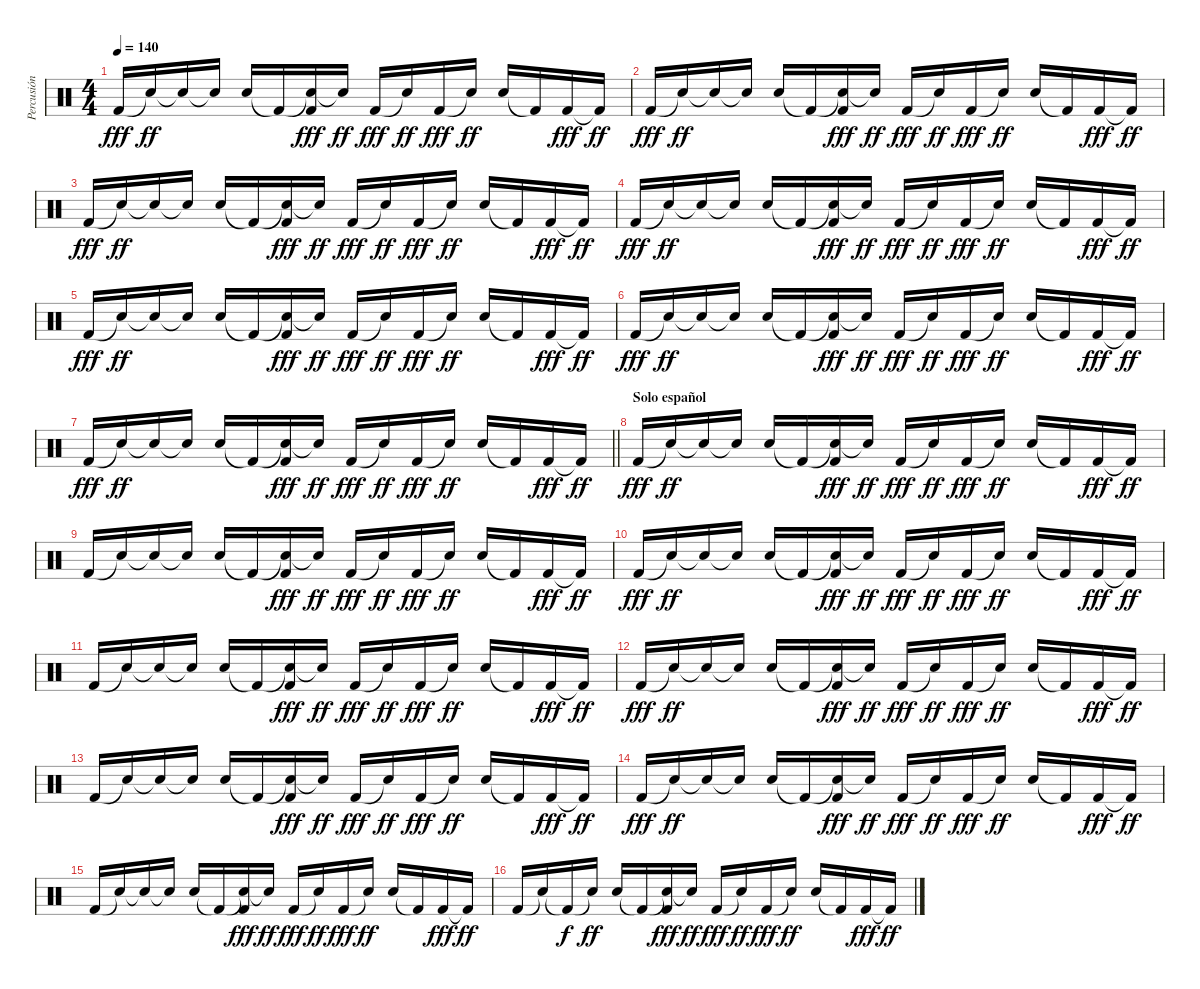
\track ("Percusión" "Percusión") {instrument percussion}
\staff {score}
\articulation defaults
\ts (4 4)
\tempo 140
\clef neutral
\ks c "Kick (hit) 2".16{dy fff} "Snare (hit)"{t}.16{dy ff} "Electric Snare (hit)"{t}.16 "Snare (hit)"{t}.16 "Electric Snare (hit)".16 "Kick (hit) 2"{t}.16
("Electric Snare (hit)"{t} "Kick (hit) 2").16{dy fff} "Snare (hit)"{t}.16{dy ff} "Kick (hit) 2".16{dy fff} "Snare (hit)"{t}.16{dy ff} "Kick (hit) 2".16{dy fff} "Snare (hit)"{t}.16{dy ff} "Electric Snare (hit)".16 "Kick (hit) 2"{t}.16 "Kick (hit) 2".16{dy fff} "Kick (hit) 2"{t}.16{dy ff} |
"Kick (hit) 2".16{dy fff} "Snare (hit)"{t}.16{dy ff} "Electric Snare (hit)"{t}.16 "Snare (hit)"{t}.16 "Electric Snare (hit)".16 "Kick (hit) 2"{t}.16 ("Electric Snare (hit)"{t} "Kick (hit) 2").16{dy fff} "Snare (hit)"{t}.16{dy ff} "Kick (hit) 2".16{dy fff} "Snare (hit)"{t}.16{dy ff} "Kick (hit) 2".16{dy fff} "Snare (hit)"{t}.16{dy ff} "Electric Snare (hit)".16 "Kick (hit) 2"{t}.16 "Kick (hit) 2".16{dy fff} "Kick (hit) 2"{t}.16{dy ff} |
"Kick (hit) 2".16{dy fff} "Snare (hit)"{t}.16{dy ff} "Electric Snare (hit)"{t}.16 "Snare (hit)"{t}.16 "Electric Snare (hit)".16 "Kick (hit) 2"{t}.16 ("Electric Snare (hit)"{t} "Kick (hit) 2").16{dy fff} "Snare (hit)"{t}.16{dy ff} "Kick (hit) 2".16{dy fff} "Snare (hit)"{t}.16{dy ff} "Kick (hit) 2".16{dy fff} "Snare (hit)"{t}.16{dy ff} "Electric Snare (hit)".16 "Kick (hit) 2"{t}.16 "Kick (hit) 2".16{dy fff} "Kick (hit) 2"{t}.16{dy ff} |
"Kick (hit) 2".16{dy fff} "Snare (hit)"{t}.16{dy ff} "Electric Snare (hit)"{t}.16 "Snare (hit)"{t}.16 "Electric Snare (hit)".16 "Kick (hit) 2"{t}.16 ("Electric Snare (hit)"{t} "Kick (hit) 2").16{dy fff} "Snare (hit)"{t}.16{dy ff} "Kick (hit) 2".16{dy fff} "Snare (hit)"{t}.16{dy ff} "Kick (hit) 2".16{dy fff} "Snare (hit)"{t}.16{dy ff} "Electric Snare (hit)".16 "Kick (hit) 2"{t}.16 "Kick (hit) 2".16{dy fff} "Kick (hit) 2"{t}.16{dy ff} |
"Kick (hit) 2".16{dy fff} "Snare (hit)"{t}.16{dy ff} "Electric Snare (hit)"{t}.16 "Snare (hit)"{t}.16 "Electric Snare (hit)".16 "Kick (hit) 2"{t}.16 ("Electric Snare (hit)"{t} "Kick (hit) 2").16{dy fff} "Snare (hit)"{t}.16{dy ff} "Kick (hit) 2".16{dy fff} "Snare (hit)"{t}.16{dy ff} "Kick (hit) 2".16{dy fff} "Snare (hit)"{t}.16{dy ff} "Electric Snare (hit)".16 "Kick (hit) 2"{t}.16 "Kick (hit) 2".16{dy fff} "Kick (hit) 2"{t}.16{dy ff} |
"Kick (hit) 2".16{dy fff} "Snare (hit)"{t}.16{dy ff} "Electric Snare (hit)"{t}.16 "Snare (hit)"{t}.16 "Electric Snare (hit)".16 "Kick (hit) 2"{t}.16 ("Electric Snare (hit)"{t} "Kick (hit) 2").16{dy fff} "Snare (hit)"{t}.16{dy ff} "Kick (hit) 2".16{dy fff} "Snare (hit)"{t}.16{dy ff} "Kick (hit) 2".16{dy fff} "Snare (hit)"{t}.16{dy ff} "Electric Snare (hit)".16 "Kick (hit) 2"{t}.16 "Kick (hit) 2".16{dy fff} "Kick (hit) 2"{t}.16{dy ff} |
\barLineRight lightlight "Kick (hit) 2".16{dy fff} "Snare (hit)"{t}.16{dy ff} "Electric Snare (hit)"{t}.16 "Snare (hit)"{t}.16 "Electric Snare (hit)".16 "Kick (hit) 2"{t}.16
("Electric Snare (hit)"{t} "Kick (hit) 2").16{dy fff} "Snare (hit)"{t}.16{dy ff} "Kick (hit) 2".16{dy fff} "Snare (hit)"{t}.16{dy ff} "Kick (hit) 2".16{dy fff} "Snare (hit)"{t}.16{dy ff} "Electric Snare (hit)".16 "Kick (hit) 2"{t}.16 "Kick (hit) 2".16{dy fff} "Kick (hit) 2"{t}.16{dy ff} |
\section ("" "Solo español")
"Kick (hit) 2".16{dy fff} "Snare (hit)"{t}.16{dy ff} "Electric Snare (hit)"{t}.16 "Snare (hit)"{t}.16 "Electric Snare (hit)".16 "Kick (hit) 2"{t}.16 ("Electric Snare (hit)"{t} "Kick (hit) 2").16{dy fff} "Snare (hit)"{t}.16{dy ff} "Kick (hit) 2".16{dy fff} "Snare (hit)"{t}.16{dy ff} "Kick (hit) 2".16{dy fff} "Snare (hit)"{t}.16{dy ff} "Electric Snare (hit)".16 "Kick (hit) 2"{t}.16 "Kick (hit) 2".16{dy fff} "Kick (hit) 2"{t}.16{dy ff} |
"Kick (hit) 2".16 "Snare (hit)"{t}.16 "Electric Snare (hit)"{t}.16 "Snare (hit)"{t}.16 "Electric Snare (hit)".16 "Kick (hit) 2"{t}.16 ("Electric Snare (hit)"{t} "Kick (hit) 2").16{dy fff} "Snare (hit)"{t}.16{dy ff} "Kick (hit) 2".16{dy fff} "Snare (hit)"{t}.16{dy ff} "Kick (hit) 2".16{dy fff} "Snare (hit)"{t}.16{dy ff} "Electric Snare (hit)".16 "Kick (hit) 2"{t}.16 "Kick (hit) 2".16{dy fff} "Kick (hit) 2"{t}.16{dy ff} |
"Kick (hit) 2".16{dy fff} "Snare (hit)"{t}.16{dy ff} "Electric Snare (hit)"{t}.16 "Snare (hit)"{t}.16 "Electric Snare (hit)".16 "Kick (hit) 2"{t}.16 ("Electric Snare (hit)"{t} "Kick (hit) 2").16{dy fff} "Snare (hit)"{t}.16{dy ff} "Kick (hit) 2".16{dy fff} "Snare (hit)"{t}.16{dy ff} "Kick (hit) 2".16{dy fff} "Snare (hit)"{t}.16{dy ff} "Electric Snare (hit)".16 "Kick (hit) 2"{t}.16 "Kick (hit) 2".16{dy fff} "Kick (hit) 2"{t}.16{dy ff} |
"Kick (hit) 2".16 "Snare (hit)"{t}.16 "Electric Snare (hit)"{t}.16 "Snare (hit)"{t}.16 "Electric Snare (hit)".16 "Kick (hit) 2"{t}.16 ("Electric Snare (hit)"{t} "Kick (hit) 2").16{dy fff} "Snare (hit)"{t}.16{dy ff} "Kick (hit) 2".16{dy fff} "Snare (hit)"{t}.16{dy ff} "Kick (hit) 2".16{dy fff} "Snare (hit)"{t}.16{dy ff} "Electric Snare (hit)".16 "Kick (hit) 2"{t}.16 "Kick (hit) 2".16{dy fff} "Kick (hit) 2"{t}.16{dy ff} |
"Kick (hit) 2".16{dy fff} "Snare (hit)"{t}.16{dy ff} "Electric Snare (hit)"{t}.16 "Snare (hit)"{t}.16 "Electric Snare (hit)".16 "Kick (hit) 2"{t}.16 ("Electric Snare (hit)"{t} "Kick (hit) 2").16{dy fff} "Snare (hit)"{t}.16{dy ff} "Kick (hit) 2".16{dy fff} "Snare (hit)"{t}.16{dy ff} "Kick (hit) 2".16{dy fff} "Snare (hit)"{t}.16{dy ff} "Electric Snare (hit)".16 "Kick (hit) 2"{t}.16 "Kick (hit) 2".16{dy fff} "Kick (hit) 2"{t}.16{dy ff} |
"Kick (hit) 2".16 "Snare (hit)"{t}.16 "Electric Snare (hit)"{t}.16 "Snare (hit)"{t}.16 "Electric Snare (hit)".16 "Kick (hit) 2"{t}.16 ("Electric Snare (hit)"{t} "Kick (hit) 2").16{dy fff} "Snare (hit)"{t}.16{dy ff} "Kick (hit) 2".16{dy fff} "Snare (hit)"{t}.16{dy ff} "Kick (hit) 2".16{dy fff} "Snare (hit)"{t}.16{dy ff} "Electric Snare (hit)".16 "Kick (hit) 2"{t}.16 "Kick (hit) 2".16{dy fff} "Kick (hit) 2"{t}.16{dy ff} |
"Kick (hit) 2".16{dy fff} "Snare (hit)"{t}.16{dy ff} "Electric Snare (hit)"{t}.16 "Snare (hit)"{t}.16 "Electric Snare (hit)".16 "Kick (hit) 2"{t}.16 ("Electric Snare (hit)"{t} "Kick (hit) 2").16{dy fff} "Snare (hit)"{t}.16{dy ff} "Kick (hit) 2".16{dy fff} "Snare (hit)"{t}.16{dy ff} "Kick (hit) 2".16{dy fff} "Snare (hit)"{t}.16{dy ff} "Electric Snare (hit)".16 "Kick (hit) 2"{t}.16 "Kick (hit) 2".16{dy fff} "Kick (hit) 2"{t}.16{dy ff} |
"Kick (hit) 2".16 "Snare (hit)"{t}.16 "Electric Snare (hit)"{t}.16 "Snare (hit)"{t}.16 "Electric Snare (hit)".16 "Kick (hit) 2"{t}.16 ("Electric Snare (hit)"{t} "Kick (hit) 2").16{dy fff} "Snare (hit)"{t}.16{dy ff} "Kick (hit) 2".16{dy fff} "Snare (hit)"{t}.16{dy ff} "Kick (hit) 2".16{dy fff} "Snare (hit)"{t}.16{dy ff} "Electric Snare (hit)".16 "Kick (hit) 2"{t}.16 "Kick (hit) 2".16{dy fff} "Kick (hit) 2"{t}.16{dy ff} |
"Kick (hit) 2".16 "Snare (hit)"{t}.16 "Kick (hit) 2"{t}.16{dy f} "Snare (hit)"{t}.16{dy ff} "Electric Snare (hit)".16 "Kick (hit) 2"{t}.16 ("Electric Snare (hit)"{t} "Kick (hit) 2").16{dy fff} "Snare (hit)"{t}.16{dy ff} "Kick (hit) 2".16{dy fff} "Snare (hit)"{t}.16{dy ff} "Kick (hit) 2".16{dy fff} "Snare (hit)"{t}.16{dy ff} "Electric Snare (hit)".16 "Kick (hit) 2"{t}.16 "Kick (hit) 2".16{dy fff} "Kick (hit) 2"{t}.16{dy ff}
